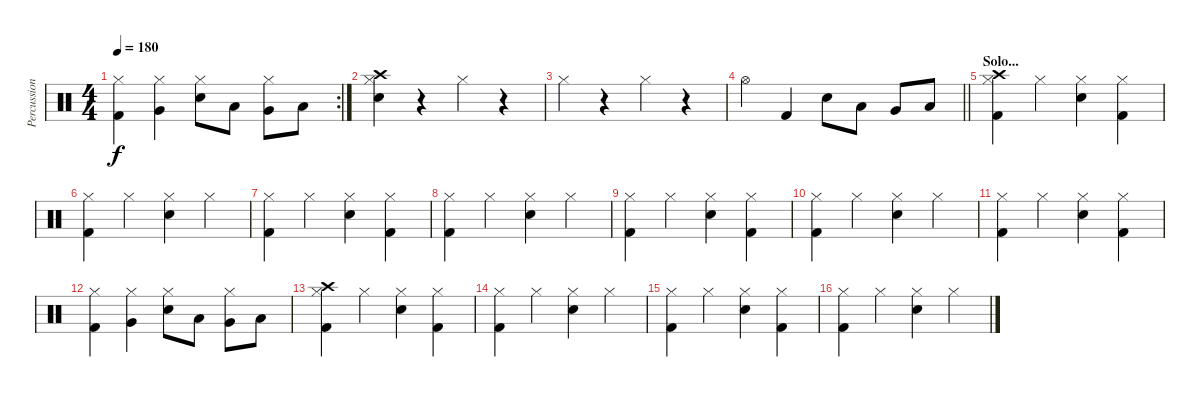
\track ("Percussion" "Percussion") {instrument percussion}
\staff {score}
\articulation defaults
\rc 2
\ts (4 4)
\tempo 180
\clef neutral
\ks c
("Kick (hit) 2" "Hi-Hat (closed)").4{dy f} ("Very Low Tom (hit)" "Hi-Hat (closed)").4 ("Snare (hit) 2" "Hi-Hat (closed)").8 "Low Tom (hit)".8 ("Very Low Tom (hit)" "Hi-Hat (closed)").8 "Low Floor Tom (hit)".8 |
("Snare (hit) 2" "Crash high (hit)" "Hi-Hat (closed)").4 r.4 "Hi-Hat (closed)".4 r.4 |
"Hi-Hat (closed)".4 r.4 "Hi-Hat (closed)".4 r.4 |
\barLineRight lightlight "Hi-Hat (open)".4 "Kick (hit) 2".4 "Snare (hit) 2".8 "Low Tom (hit)".8 "Very Low Tom (hit)".8 "Low Floor Tom (hit)".8
|
\section ("" "Solo...")
("Kick (hit) 2" "Crash high (hit)" "Hi-Hat (closed)").4 "Hi-Hat (closed)".4 ("Snare (hit) 2" "Hi-Hat (closed)").4 ("Kick (hit) 2" "Hi-Hat (closed)").4 |
("Kick (hit) 2" "Hi-Hat (closed)").4 "Hi-Hat (closed)".4 ("Snare (hit) 2" "Hi-Hat (closed)").4 "Hi-Hat (closed)".4 |
("Kick (hit) 2" "Hi-Hat (closed)").4 "Hi-Hat (closed)".4 ("Snare (hit) 2" "Hi-Hat (closed)").4 ("Kick (hit) 2" "Hi-Hat (closed)").4 |
("Kick (hit) 2" "Hi-Hat (closed)").4 "Hi-Hat (closed)".4 ("Snare (hit) 2" "Hi-Hat (closed)").4 "Hi-Hat (closed)".4 |
("Kick (hit) 2" "Hi-Hat (closed)").4 "Hi-Hat (closed)".4 ("Snare (hit) 2" "Hi-Hat (closed)").4 ("Kick (hit) 2" "Hi-Hat (closed)").4 |
("Kick (hit) 2" "Hi-Hat (closed)").4 "Hi-Hat (closed)".4 ("Snare (hit) 2" "Hi-Hat (closed)").4 "Hi-Hat (closed)".4 |
("Kick (hit) 2" "Hi-Hat (closed)").4 "Hi-Hat (closed)".4 ("Snare (hit) 2" "Hi-Hat (closed)").4 ("Kick (hit) 2" "Hi-Hat (closed)").4 |
("Kick (hit) 2" "Hi-Hat (closed)").4 ("Very Low Tom (hit)" "Hi-Hat (closed)").4 ("Snare (hit) 2" "Hi-Hat (closed)").8 "Low Tom (hit)".8 ("Very Low Tom (hit)" "Hi-Hat (closed)").8 "Low Floor Tom (hit)".8 |
("Kick (hit) 2" "Crash high (hit)" "Hi-Hat (closed)").4 "Hi-Hat (closed)".4 ("Snare (hit) 2" "Hi-Hat (closed)").4 ("Kick (hit) 2" "Hi-Hat (closed)").4 |
("Kick (hit) 2" "Hi-Hat (closed)").4 "Hi-Hat (closed)".4 ("Snare (hit) 2" "Hi-Hat (closed)").4 "Hi-Hat (closed)".4 |
("Kick (hit) 2" "Hi-Hat (closed)").4 "Hi-Hat (closed)".4 ("Snare (hit) 2" "Hi-Hat (closed)").4 ("Kick (hit) 2" "Hi-Hat (closed)").4 |
("Kick (hit) 2" "Hi-Hat (closed)").4 "Hi-Hat (closed)".4 ("Snare (hit) 2" "Hi-Hat (closed)").4 "Hi-Hat (closed)".4
